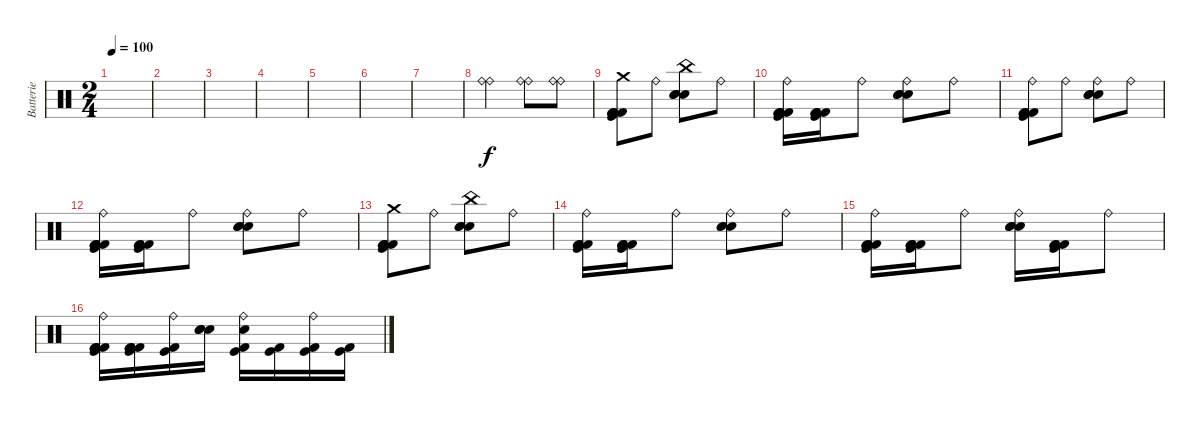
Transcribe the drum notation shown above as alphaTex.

\track ("Batterie" "Batterie") {instrument percussion}
\staff {score}
\articulation defaults
\ts (2 4)
\tempo 100
\clef neutral
\ks c
|
|
|
|
|
|
|
("Ride (bell)" "Ride (bell)").4 ("Ride (bell)" "Ride (bell)").8 ("Ride (bell)" "Ride (bell)").8 |
("Crash medium (hit)" "Kick (hit) 2" "Kick (hit) 2" "Kick (hit) 2" "Kick (hit)").8 "Ride (bell)".8 ("China (hit)" "Snare (hit) 2" "Electric Snare (hit)" "Electric Snare (hit)").8 "Ride (bell)".8 |
("Ride (bell)" "Kick (hit) 2" "Kick (hit) 2" "Kick (hit) 2" "Kick (hit)").16 ("Kick (hit) 2" "Kick (hit) 2" "Kick (hit) 2" "Kick (hit)").16 "Ride (bell)".8 ("Ride (bell)" "Snare (hit) 2" "Electric Snare (hit)" "Electric Snare (hit)").8 "Ride (bell)".8 |
("Ride (bell)" "Kick (hit) 2" "Kick (hit) 2" "Kick (hit) 2" "Kick (hit)").8 "Ride (bell)".8 ("Ride (bell)" "Snare (hit) 2" "Electric Snare (hit)" "Electric Snare (hit)").8 "Ride (bell)".8 |
("Ride (bell)" "Kick (hit) 2" "Kick (hit) 2" "Kick (hit) 2" "Kick (hit)").16 ("Kick (hit) 2" "Kick (hit) 2" "Kick (hit) 2" "Kick (hit)").16 "Ride (bell)".8 ("Ride (bell)" "Snare (hit) 2" "Electric Snare (hit)" "Electric Snare (hit)").8 "Ride (bell)".8 |
("Crash medium (hit)" "Kick (hit) 2" "Kick (hit) 2" "Kick (hit) 2" "Kick (hit)").8 "Ride (bell)".8 ("China (hit)" "Snare (hit) 2" "Electric Snare (hit)" "Electric Snare (hit)").8 "Ride (bell)".8 |
("Ride (bell)" "Kick (hit) 2" "Kick (hit) 2" "Kick (hit) 2" "Kick (hit)").16 ("Kick (hit) 2" "Kick (hit) 2" "Kick (hit) 2" "Kick (hit)").16 "Ride (bell)".8 ("Ride (bell)" "Snare (hit) 2" "Electric Snare (hit)" "Electric Snare (hit)").8 "Ride (bell)".8 |
("Ride (bell)" "Kick (hit) 2" "Kick (hit) 2" "Kick (hit) 2" "Kick (hit)").16 ("Kick (hit) 2" "Kick (hit) 2" "Kick (hit) 2" "Kick (hit)").16 "Ride (bell)".8 ("Ride (bell)" "Snare (hit) 2" "Electric Snare (hit)" "Electric Snare (hit)").16 ("Kick (hit) 2" "Kick (hit) 2" "Kick (hit) 2" "Kick (hit)").16 "Ride (bell)".8 |
("Ride (bell)" "Kick (hit) 2" "Kick (hit) 2" "Kick (hit) 2" "Kick (hit)").16 ("Kick (hit) 2" "Kick (hit) 2" "Kick (hit) 2" "Kick (hit)").16 ("Ride (bell)" "Kick (hit) 2" "Kick (hit)").16 ("Snare (hit) 2" "Electric Snare (hit)" "Electric Snare (hit)").16 ("Ride (bell)" "Electric Snare (hit)" "Kick (hit)" "Kick (hit) 2").16 ("Kick (hit) 2" "Kick (hit)").16 ("Ride (bell)" "Kick (hit) 2" "Kick (hit)").16 ("Kick (hit) 2" "Kick (hit)").16
